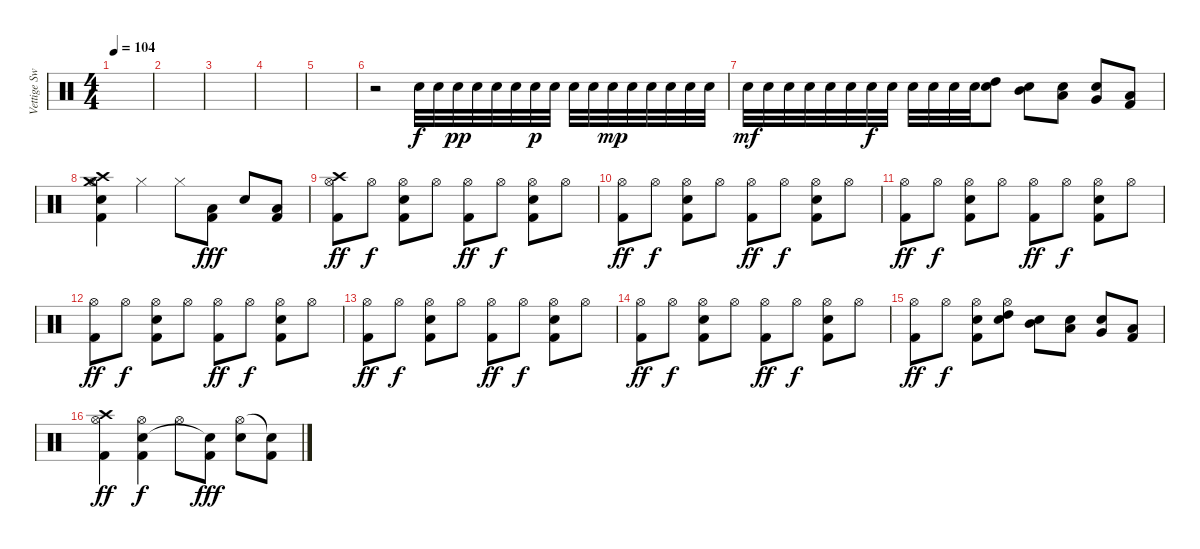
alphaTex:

\track ("Vettige Swa" "Vettige Sw") {instrument percussion}
\staff {score}
\articulation defaults
\ts (4 4)
\tempo 104
\clef neutral
\ks c
|
|
|
|
|
r.2 "Electric Snare (hit)".32 "Electric Snare (hit)".32 "Electric Snare (hit)".32{dy pp} "Electric Snare (hit)".32 "Electric Snare (hit)".32 "Electric Snare (hit)".32 "Electric Snare (hit)".32{dy p} "Electric Snare (hit)".32 "Electric Snare (hit)".32 "Electric Snare (hit)".32 "Electric Snare (hit)".32{dy mp} "Electric Snare (hit)".32 "Electric Snare (hit)".32 "Electric Snare (hit)".32 "Electric Snare (hit)".32 "Electric Snare (hit)".32 |
"Electric Snare (hit)".32{dy mf} "Electric Snare (hit)".32 "Electric Snare (hit)".32 "Electric Snare (hit)".32 "Electric Snare (hit)".32 "Electric Snare (hit)".32 "Electric Snare (hit)".32{dy f} "Electric Snare (hit)".32 "Electric Snare (hit)".32 "Electric Snare (hit)".32 "Electric Snare (hit)".32 "Electric Snare (hit)".32 ("Electric Snare (hit)" "High Tom (hit)").8 ("Electric Snare (hit)" "Mid Tom (hit)").8 ("Electric Snare (hit)" "Low Tom (hit)").8 ("Electric Snare (hit)" "Very Low Tom (hit)").8 ("Kick (hit) 2" "Low Floor Tom (hit)").8 |
("Electric Snare (hit)" "Hi-Hat (open)" "Crash medium (hit)" "Kick (hit) 2" "Crash high (hit)").4 "Hi-Hat (closed)".4 "Hi-Hat (closed)".8 ("Kick (hit) 2" "Low Floor Tom (hit)").8{dy fff} "Electric Snare (hit)".8 ("Kick (hit) 2" "Low Floor Tom (hit)").8 |
("Hi-Hat (open)" "Crash high (hit)" "Kick (hit) 2").8{dy ff} "Hi-Hat (open)".8{dy f} ("Hi-Hat (open)" "Electric Snare (hit)" "Kick (hit) 2").8 "Hi-Hat (open)".8 ("Hi-Hat (open)" "Kick (hit) 2").8{dy ff} "Hi-Hat (open)".8{dy f} ("Hi-Hat (open)" "Electric Snare (hit)" "Kick (hit) 2").8 "Hi-Hat (open)".8 |
("Hi-Hat (open)" "Kick (hit) 2").8{dy ff} "Hi-Hat (open)".8{dy f} ("Hi-Hat (open)" "Electric Snare (hit)" "Kick (hit) 2").8 "Hi-Hat (open)".8 ("Hi-Hat (open)" "Kick (hit) 2").8{dy ff} "Hi-Hat (open)".8{dy f} ("Hi-Hat (open)" "Electric Snare (hit)" "Kick (hit) 2").8 "Hi-Hat (open)".8 |
("Hi-Hat (open)" "Kick (hit) 2").8{dy ff} "Hi-Hat (open)".8{dy f} ("Hi-Hat (open)" "Electric Snare (hit)" "Kick (hit) 2").8 "Hi-Hat (open)".8 ("Hi-Hat (open)" "Kick (hit) 2").8{dy ff} "Hi-Hat (open)".8{dy f} ("Hi-Hat (open)" "Electric Snare (hit)" "Kick (hit) 2").8 "Hi-Hat (open)".8 |
("Hi-Hat (open)" "Kick (hit) 2").8{dy ff} "Hi-Hat (open)".8{dy f} ("Hi-Hat (open)" "Electric Snare (hit)" "Kick (hit) 2").8 "Hi-Hat (open)".8 ("Hi-Hat (open)" "Kick (hit) 2").8{dy ff} "Hi-Hat (open)".8{dy f} ("Hi-Hat (open)" "Electric Snare (hit)" "Kick (hit) 2").8 "Hi-Hat (open)".8 |
("Hi-Hat (open)" "Kick (hit) 2").8{dy ff} "Hi-Hat (open)".8{dy f} ("Hi-Hat (open)" "Electric Snare (hit)" "Kick (hit) 2").8 "Hi-Hat (open)".8 ("Hi-Hat (open)" "Kick (hit) 2").8{dy ff} "Hi-Hat (open)".8{dy f} ("Hi-Hat (open)" "Electric Snare (hit)" "Kick (hit) 2").8 "Hi-Hat (open)".8 |
("Hi-Hat (open)" "Kick (hit) 2").8{dy ff} "Hi-Hat (open)".8{dy f} ("Hi-Hat (open)" "Electric Snare (hit)" "Kick (hit) 2").8 "Hi-Hat (open)".8 ("Hi-Hat (open)" "Kick (hit) 2").8{dy ff} "Hi-Hat (open)".8{dy f} ("Hi-Hat (open)" "Electric Snare (hit)" "Kick (hit) 2").8 "Hi-Hat (open)".8 |
("Hi-Hat (open)" "Kick (hit) 2").8{dy ff} "Hi-Hat (open)".8{dy f} ("Hi-Hat (open)" "Electric Snare (hit)" "Kick (hit) 2").8 ("Hi-Hat (open)" "Electric Snare (hit)" "High Tom (hit)").8 ("Electric Snare (hit)" "Mid Tom (hit)").8 ("Electric Snare (hit)" "Low Tom (hit)").8 ("Electric Snare (hit)" "Very Low Tom (hit)").8 ("Kick (hit) 2" "Low Floor Tom (hit)").8 |
("Crash high (hit)" "Kick (hit) 2" "Hi-Hat (open)").4{dy ff} ("Hi-Hat (open)" "Electric Snare (hit)" "Kick (hit) 2").4{dy f} "Hi-Hat (open)".8 ("Kick (hit) 2" "Snare (hit)"{t}).8{dy fff} ("Electric Snare (hit)" "Hi-Hat (open)").8 ("Kick (hit) 2" "Snare (hit)"{t}).8
